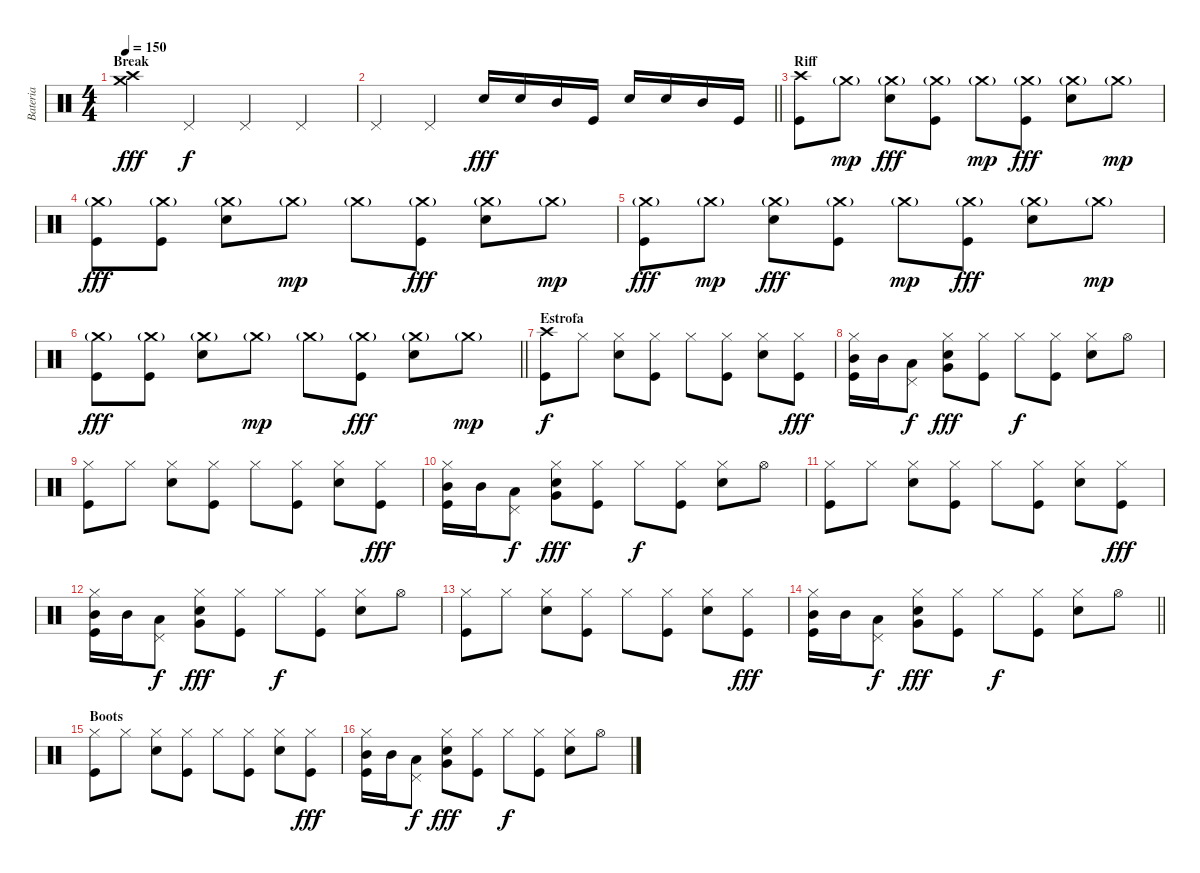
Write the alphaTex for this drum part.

\track ("Bateria" "Bateria") {instrument percussion}
\staff {score}
\articulation defaults
\ts (4 4)
\section ("" "Break")
\tempo 150
\clef neutral
\ks c
("Crash high (hit)" "Crash medium (hit)").4{dy fff} "Pedal Hi-Hat (hit)".4{dy f} "Pedal Hi-Hat (hit)".4 "Pedal Hi-Hat (hit)".4 |
\barLineRight lightlight "Pedal Hi-Hat (hit)".4 "Pedal Hi-Hat (hit)".4 "Electric Snare (hit)".16{dy fff} "Electric Snare (hit)".16 "Mid Tom (hit)".16 "Kick (hit)".16 "Electric Snare (hit)".16 "Electric Snare (hit)".16 "Mid Tom (hit)".16 "Kick (hit)".16
|
\section ("" "Riff")
("Crash high (hit)" "Kick (hit)").8 "Crash medium (hit)"{g}.8{dy mp} ("Crash medium (hit)"{g} "Electric Snare (hit)").8{dy fff} ("Crash medium (hit)"{g} "Kick (hit)").8 "Crash medium (hit)"{g}.8{dy mp} ("Crash medium (hit)"{g} "Kick (hit)").8{dy fff} ("Crash medium (hit)"{g} "Electric Snare (hit)").8 "Crash medium (hit)"{g}.8{dy mp} |
("Crash medium (hit)"{g} "Kick (hit)").8{dy fff} ("Crash medium (hit)"{g} "Kick (hit)").8 ("Crash medium (hit)"{g} "Electric Snare (hit)").8 "Crash medium (hit)"{g}.8{dy mp} "Crash medium (hit)"{g}.8 ("Crash medium (hit)"{g} "Kick (hit)").8{dy fff} ("Crash medium (hit)"{g} "Electric Snare (hit)").8 "Crash medium (hit)"{g}.8{dy mp} |
("Crash medium (hit)"{g} "Kick (hit)").8{dy fff} "Crash medium (hit)"{g}.8{dy mp} ("Crash medium (hit)"{g} "Electric Snare (hit)").8{dy fff} ("Crash medium (hit)"{g} "Kick (hit)").8 "Crash medium (hit)"{g}.8{dy mp} ("Crash medium (hit)"{g} "Kick (hit)").8{dy fff} ("Crash medium (hit)"{g} "Electric Snare (hit)").8 "Crash medium (hit)"{g}.8{dy mp} |
\barLineRight lightlight
("Crash medium (hit)"{g} "Kick (hit)").8{dy fff} ("Crash medium (hit)"{g} "Kick (hit)").8 ("Crash medium (hit)"{g} "Electric Snare (hit)").8 "Crash medium (hit)"{g}.8{dy mp} "Crash medium (hit)"{g}.8 ("Crash medium (hit)"{g} "Kick (hit)").8{dy fff} ("Crash medium (hit)"{g} "Electric Snare (hit)").8 "Crash medium (hit)"{g}.8{dy mp} |
\section ("" "Estrofa")
("Crash high (hit)" "Kick (hit)").8{dy f} "Hi-Hat (closed)".8 ("Hi-Hat (closed)" "Electric Snare (hit)").8 ("Hi-Hat (closed)" "Kick (hit)").8 "Hi-Hat (closed)".8 ("Hi-Hat (closed)" "Kick (hit)").8 ("Hi-Hat (closed)" "Electric Snare (hit)").8 ("Hi-Hat (closed)" "Kick (hit)").8{dy fff} |
("Hi-Hat (closed)" "Kick (hit)" "Mid Tom (hit)").16 "Mid Tom (hit)".16 ("Pedal Hi-Hat (hit)" "Low Tom (hit)").8{dy f} ("Hi-Hat (closed)" "Very Low Tom (hit)" "Electric Snare (hit)").8{dy fff} ("Hi-Hat (closed)" "Kick (hit)").8 "Hi-Hat (closed)".8{dy f} ("Hi-Hat (closed)" "Kick (hit)").8 ("Hi-Hat (closed)" "Electric Snare (hit)").8 "Hi-Hat (open)".8 |
("Hi-Hat (closed)" "Kick (hit)").8 "Hi-Hat (closed)".8 ("Hi-Hat (closed)" "Electric Snare (hit)").8 ("Hi-Hat (closed)" "Kick (hit)").8 "Hi-Hat (closed)".8 ("Hi-Hat (closed)" "Kick (hit)").8 ("Hi-Hat (closed)" "Electric Snare (hit)").8 ("Hi-Hat (closed)" "Kick (hit)").8{dy fff} |
("Hi-Hat (closed)" "Kick (hit)" "Mid Tom (hit)").16 "Mid Tom (hit)".16 ("Pedal Hi-Hat (hit)" "Low Tom (hit)").8{dy f} ("Hi-Hat (closed)" "Very Low Tom (hit)" "Electric Snare (hit)").8{dy fff} ("Hi-Hat (closed)" "Kick (hit)").8 "Hi-Hat (closed)".8{dy f} ("Hi-Hat (closed)" "Kick (hit)").8 ("Hi-Hat (closed)" "Electric Snare (hit)").8 "Hi-Hat (open)".8 |
("Hi-Hat (closed)" "Kick (hit)").8 "Hi-Hat (closed)".8 ("Hi-Hat (closed)" "Electric Snare (hit)").8 ("Hi-Hat (closed)" "Kick (hit)").8 "Hi-Hat (closed)".8 ("Hi-Hat (closed)" "Kick (hit)").8 ("Hi-Hat (closed)" "Electric Snare (hit)").8 ("Hi-Hat (closed)" "Kick (hit)").8{dy fff} |
("Hi-Hat (closed)" "Kick (hit)" "Mid Tom (hit)").16 "Mid Tom (hit)".16 ("Pedal Hi-Hat (hit)" "Low Tom (hit)").8{dy f} ("Hi-Hat (closed)" "Very Low Tom (hit)" "Electric Snare (hit)").8{dy fff} ("Hi-Hat (closed)" "Kick (hit)").8 "Hi-Hat (closed)".8{dy f} ("Hi-Hat (closed)" "Kick (hit)").8 ("Hi-Hat (closed)" "Electric Snare (hit)").8 "Hi-Hat (open)".8 |
("Hi-Hat (closed)" "Kick (hit)").8 "Hi-Hat (closed)".8 ("Hi-Hat (closed)" "Electric Snare (hit)").8 ("Hi-Hat (closed)" "Kick (hit)").8 "Hi-Hat (closed)".8 ("Hi-Hat (closed)" "Kick (hit)").8 ("Hi-Hat (closed)" "Electric Snare (hit)").8 ("Hi-Hat (closed)" "Kick (hit)").8{dy fff} |
\barLineRight lightlight
("Hi-Hat (closed)" "Kick (hit)" "Mid Tom (hit)").16 "Mid Tom (hit)".16 ("Pedal Hi-Hat (hit)" "Low Tom (hit)").8{dy f} ("Hi-Hat (closed)" "Very Low Tom (hit)" "Electric Snare (hit)").8{dy fff} ("Hi-Hat (closed)" "Kick (hit)").8 "Hi-Hat (closed)".8{dy f} ("Hi-Hat (closed)" "Kick (hit)").8 ("Hi-Hat (closed)" "Electric Snare (hit)").8 "Hi-Hat (open)".8 |
\section ("" "Boots")
("Hi-Hat (closed)" "Kick (hit)").8 "Hi-Hat (closed)".8 ("Hi-Hat (closed)" "Electric Snare (hit)").8 ("Hi-Hat (closed)" "Kick (hit)").8 "Hi-Hat (closed)".8 ("Hi-Hat (closed)" "Kick (hit)").8 ("Hi-Hat (closed)" "Electric Snare (hit)").8 ("Hi-Hat (closed)" "Kick (hit)").8{dy fff} |
("Hi-Hat (closed)" "Kick (hit)" "Mid Tom (hit)").16 "Mid Tom (hit)".16 ("Pedal Hi-Hat (hit)" "Low Tom (hit)").8{dy f} ("Hi-Hat (closed)" "Very Low Tom (hit)" "Electric Snare (hit)").8{dy fff} ("Hi-Hat (closed)" "Kick (hit)").8 "Hi-Hat (closed)".8{dy f} ("Hi-Hat (closed)" "Kick (hit)").8 ("Hi-Hat (closed)" "Electric Snare (hit)").8 "Hi-Hat (open)".8
